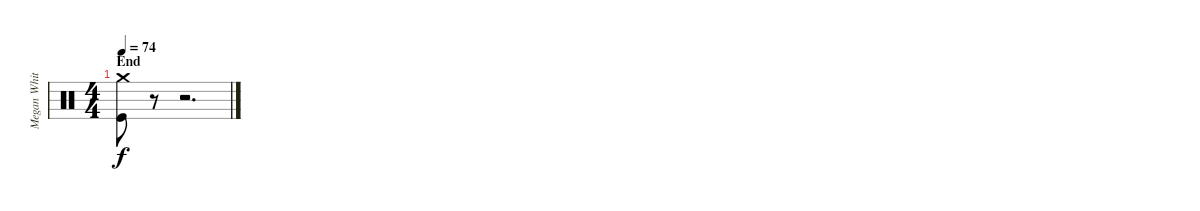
\track ("Megan White" "Megan Whit") {instrument percussion}
\staff {score}
\articulation defaults
\ts (4 4)
\section ("" "End")
\tempo 74
\clef neutral
\ks c
("Crash medium (hit)" "Kick (hit)").8{dy f} r.8 r.2{d}
